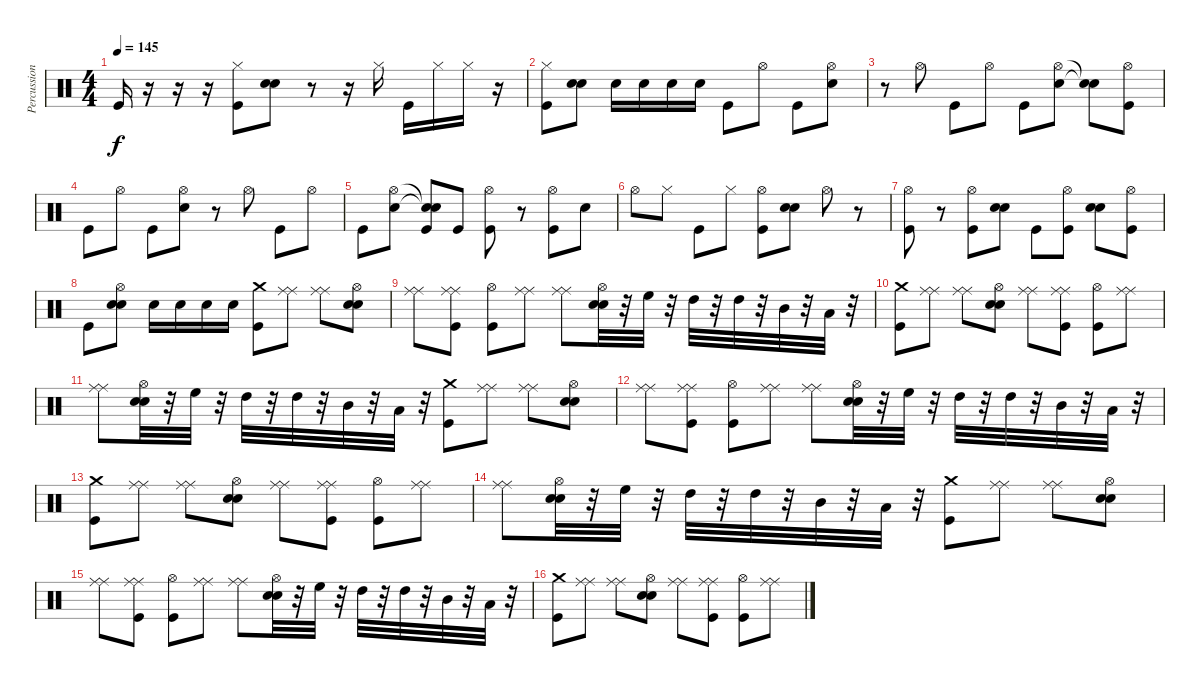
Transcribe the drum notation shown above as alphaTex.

\track ("Percussions" "Percussion") {instrument percussion}
\staff {score}
\articulation defaults
\ts (4 4)
\tempo 145
\clef neutral
\ks c "Kick (hit)".16{dy f}
r.16 r.16 r.16 ("Hi-Hat (closed)" "Kick (hit)").8 ("Electric Snare (hit)" "Electric Snare (hit)").8 r.8 r.16 "Hi-Hat (closed)".16 "Kick (hit)".16 "Hi-Hat (closed)".16 "Hi-Hat (closed)".16 r.16 |
("Hi-Hat (closed)" "Kick (hit)").8 ("Electric Snare (hit)" "Electric Snare (hit)").8 "Electric Snare (hit)".16{volume 12} "Electric Snare (hit)".16 "Electric Snare (hit)".16 "Electric Snare (hit)".16 "Kick (hit)".8{volume 16} "Hi-Hat (open)".8 "Kick (hit)".8 ("Hi-Hat (open)" "Electric Snare (hit)").8 |
r.8 "Hi-Hat (open)".8 "Kick (hit)".8 "Hi-Hat (open)".8 "Kick (hit)".8 ("Electric Snare (hit)" "Hi-Hat (open)").8 ("Snare (hit)"{t} "Snare (hit)"{t}).8 ("Hi-Hat (open)" "Kick (hit)").8 |
"Kick (hit)".8 "Hi-Hat (open)".8 "Kick (hit)".8 ("Hi-Hat (open)" "Electric Snare (hit)").8 r.8 "Hi-Hat (open)".8 "Kick (hit)".8 "Hi-Hat (open)".8 |
"Kick (hit)".8 ("Hi-Hat (open)" "Electric Snare (hit)").8 ("Snare (hit)"{t} "Snare (hit)"{t} "Kick (hit)").8 "Kick (hit)".8 ("Hi-Hat (open)" "Kick (hit)").8 r.8 ("Hi-Hat (open)" "Kick (hit)").8 "Electric Snare (hit)".8 |
"Hi-Hat (open)".8 "Hi-Hat (closed)".8 "Kick (hit)".8 "Hi-Hat (closed)".8 ("Hi-Hat (open)" "Kick (hit)").8 ("Electric Snare (hit)" "Electric Snare (hit)").8 "Hi-Hat (open)".8 r.8 |
("Hi-Hat (open)" "Kick (hit)").8 r.8 ("Hi-Hat (open)" "Kick (hit)").8 ("Electric Snare (hit)" "Electric Snare (hit)").8 "Kick (hit)".8 ("Hi-Hat (open)" "Kick (hit)").8 ("Electric Snare (hit)" "Electric Snare (hit)").8 ("Hi-Hat (open)" "Kick (hit)").8 |
"Kick (hit)".8 ("Hi-Hat (open)" "Electric Snare (hit)" "Electric Snare (hit)").8 "Electric Snare (hit)".16{volume 12} "Electric Snare (hit)".16 "Electric Snare (hit)".16 "Electric Snare (hit)".16 ("Crash medium (hit)" "Kick (hit)").8{volume 16} ("Ride (middle)" "Ride (middle)").8 ("Ride (middle)" "Ride (middle)").8 ("Hi-Hat (open)" "Electric Snare (hit)" "Electric Snare (hit)").8 |
("Ride (middle)" "Ride (middle)").8 ("Ride (middle)" "Ride (middle)" "Kick (hit)").8 ("Hi-Hat (open)" "Kick (hit)").8 ("Ride (middle)" "Ride (middle)").8 ("Ride (middle)" "Ride (middle)").8 ("Hi-Hat (open)" "Electric Snare (hit)" "Electric Snare (hit)").32 r.32{volume 11} "High Floor Tom (hit)".32 r.32 "High Tom (hit)".32 r.32 "High Tom (hit)".32 r.32 "Mid Tom (hit)".32 r.32 "Low Tom (hit)".32 r.32 |
("Crash medium (hit)" "Kick (hit)").8{volume 16} ("Ride (middle)" "Ride (middle)").8 ("Ride (middle)" "Ride (middle)").8 ("Hi-Hat (open)" "Electric Snare (hit)" "Electric Snare (hit)").8 ("Ride (middle)" "Ride (middle)").8 ("Ride (middle)" "Ride (middle)" "Kick (hit)").8 ("Hi-Hat (open)" "Kick (hit)").8 ("Ride (middle)" "Ride (middle)").8 |
("Ride (middle)" "Ride (middle)").8 ("Hi-Hat (open)" "Electric Snare (hit)" "Electric Snare (hit)").32 r.32{volume 11} "High Floor Tom (hit)".32 r.32 "High Tom (hit)".32 r.32 "High Tom (hit)".32 r.32 "Mid Tom (hit)".32 r.32 "Low Tom (hit)".32 r.32 ("Crash medium (hit)" "Kick (hit)").8{volume 16} ("Ride (middle)" "Ride (middle)").8 ("Ride (middle)" "Ride (middle)").8 ("Hi-Hat (open)" "Electric Snare (hit)" "Electric Snare (hit)").8 |
("Ride (middle)" "Ride (middle)").8 ("Ride (middle)" "Ride (middle)" "Kick (hit)").8 ("Hi-Hat (open)" "Kick (hit)").8 ("Ride (middle)" "Ride (middle)").8 ("Ride (middle)" "Ride (middle)").8 ("Hi-Hat (open)" "Electric Snare (hit)" "Electric Snare (hit)").32 r.32{volume 11} "High Floor Tom (hit)".32 r.32 "High Tom (hit)".32 r.32 "High Tom (hit)".32 r.32 "Mid Tom (hit)".32 r.32 "Low Tom (hit)".32 r.32 |
("Crash medium (hit)" "Kick (hit)").8{volume 16} ("Ride (middle)" "Ride (middle)").8 ("Ride (middle)" "Ride (middle)").8 ("Hi-Hat (open)" "Electric Snare (hit)" "Electric Snare (hit)").8 ("Ride (middle)" "Ride (middle)").8 ("Ride (middle)" "Ride (middle)" "Kick (hit)").8 ("Hi-Hat (open)" "Kick (hit)").8 ("Ride (middle)" "Ride (middle)").8 |
("Ride (middle)" "Ride (middle)").8 ("Hi-Hat (open)" "Electric Snare (hit)" "Electric Snare (hit)").32 r.32{volume 11} "High Floor Tom (hit)".32 r.32 "High Tom (hit)".32 r.32 "High Tom (hit)".32 r.32 "Mid Tom (hit)".32 r.32 "Low Tom (hit)".32 r.32 ("Crash medium (hit)" "Kick (hit)").8{volume 16} ("Ride (middle)" "Ride (middle)").8 ("Ride (middle)" "Ride (middle)").8 ("Hi-Hat (open)" "Electric Snare (hit)" "Electric Snare (hit)").8 |
("Ride (middle)" "Ride (middle)").8 ("Ride (middle)" "Ride (middle)" "Kick (hit)").8 ("Hi-Hat (open)" "Kick (hit)").8 ("Ride (middle)" "Ride (middle)").8 ("Ride (middle)" "Ride (middle)").8 ("Hi-Hat (open)" "Electric Snare (hit)" "Electric Snare (hit)").32 r.32{volume 11} "High Floor Tom (hit)".32 r.32 "High Tom (hit)".32 r.32 "High Tom (hit)".32 r.32 "Mid Tom (hit)".32 r.32 "Low Tom (hit)".32 r.32 |
("Crash medium (hit)" "Kick (hit)").8{volume 16} ("Ride (middle)" "Ride (middle)").8 ("Ride (middle)" "Ride (middle)").8 ("Hi-Hat (open)" "Electric Snare (hit)" "Electric Snare (hit)").8 ("Ride (middle)" "Ride (middle)").8 ("Ride (middle)" "Ride (middle)" "Kick (hit)").8 ("Hi-Hat (open)" "Kick (hit)").8 ("Ride (middle)" "Ride (middle)").8
